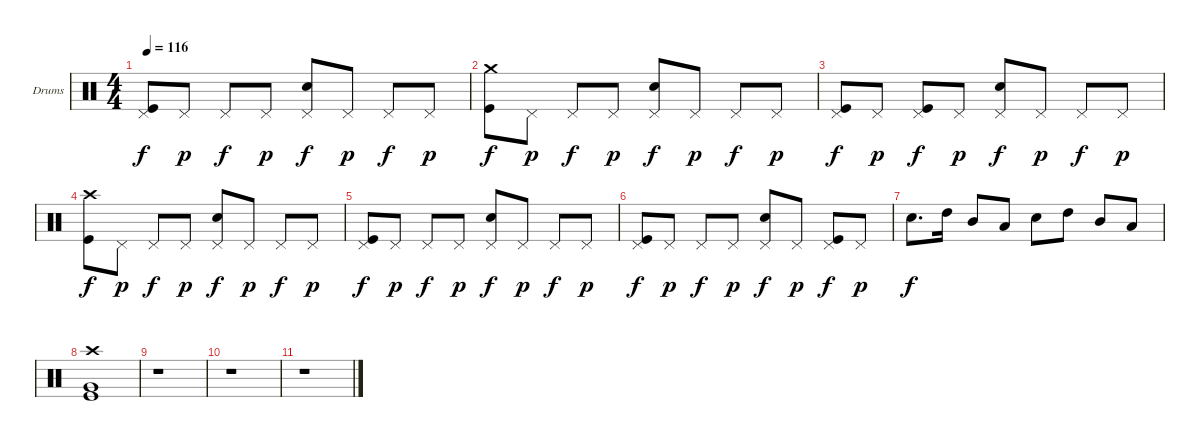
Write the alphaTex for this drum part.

\bracketExtendMode nobrackets
\firstSystemTrackNameOrientation horizontal
\otherSystemsTrackNameOrientation horizontal
\track ("Drumkit" "Drums") {instrument percussion}
\staff {score}
\articulation defaults
\ts (4 4)
\tempo 116
\clef neutral
\ks c
("Kick (hit)" "Pedal Hi-Hat (hit)").8{dy f} "Pedal Hi-Hat (hit)".8{dy p} "Pedal Hi-Hat (hit)".8{dy f} "Pedal Hi-Hat (hit)".8{dy p} ("Pedal Hi-Hat (hit)" "Snare (hit) 2").8{dy f} "Pedal Hi-Hat (hit)".8{dy p} "Pedal Hi-Hat (hit)".8{dy f} "Pedal Hi-Hat (hit)".8{dy p} |
("Kick (hit)" "Crash medium (hit)").8{dy f} "Pedal Hi-Hat (hit)".8{dy p} "Pedal Hi-Hat (hit)".8{dy f} "Pedal Hi-Hat (hit)".8{dy p} ("Pedal Hi-Hat (hit)" "Snare (hit) 2").8{dy f} "Pedal Hi-Hat (hit)".8{dy p} "Pedal Hi-Hat (hit)".8{dy f} "Pedal Hi-Hat (hit)".8{dy p} |
("Kick (hit)" "Pedal Hi-Hat (hit)").8{dy f} "Pedal Hi-Hat (hit)".8{dy p} ("Kick (hit)" "Pedal Hi-Hat (hit)").8{dy f} "Pedal Hi-Hat (hit)".8{dy p} ("Pedal Hi-Hat (hit)" "Snare (hit) 2").8{dy f} "Pedal Hi-Hat (hit)".8{dy p} "Pedal Hi-Hat (hit)".8{dy f} "Pedal Hi-Hat (hit)".8{dy p} |
("Kick (hit)" "Crash high (hit)").8{dy f} "Pedal Hi-Hat (hit)".8{dy p} "Pedal Hi-Hat (hit)".8{dy f} "Pedal Hi-Hat (hit)".8{dy p} ("Pedal Hi-Hat (hit)" "Snare (hit) 2").8{dy f} "Pedal Hi-Hat (hit)".8{dy p} "Pedal Hi-Hat (hit)".8{dy f} "Pedal Hi-Hat (hit)".8{dy p} |
("Kick (hit)" "Pedal Hi-Hat (hit)").8{dy f} "Pedal Hi-Hat (hit)".8{dy p} "Pedal Hi-Hat (hit)".8{dy f} "Pedal Hi-Hat (hit)".8{dy p} ("Pedal Hi-Hat (hit)" "Snare (hit) 2").8{dy f} "Pedal Hi-Hat (hit)".8{dy p} "Pedal Hi-Hat (hit)".8{dy f} "Pedal Hi-Hat (hit)".8{dy p} |
("Kick (hit)" "Pedal Hi-Hat (hit)").8{dy f} "Pedal Hi-Hat (hit)".8{dy p} "Pedal Hi-Hat (hit)".8{dy f} "Pedal Hi-Hat (hit)".8{dy p} ("Pedal Hi-Hat (hit)" "Snare (hit) 2").8{dy f} "Pedal Hi-Hat (hit)".8{dy p} ("Kick (hit)" "Pedal Hi-Hat (hit)").8{dy f} "Pedal Hi-Hat (hit)".8{dy p} |
"Snare (hit) 2".8{d dy f} "High Tom (hit)".16 "Mid Tom (hit)".8 "Low Tom (hit)".8 "Snare (hit) 2".8 "High Tom (hit)".8 "Mid Tom (hit)".8 "Low Tom (hit)".8 |
("Kick (hit)" "Crash high (hit)" "Very Low Tom (hit)").1 |
r.1 |
r.1 |
r.1
